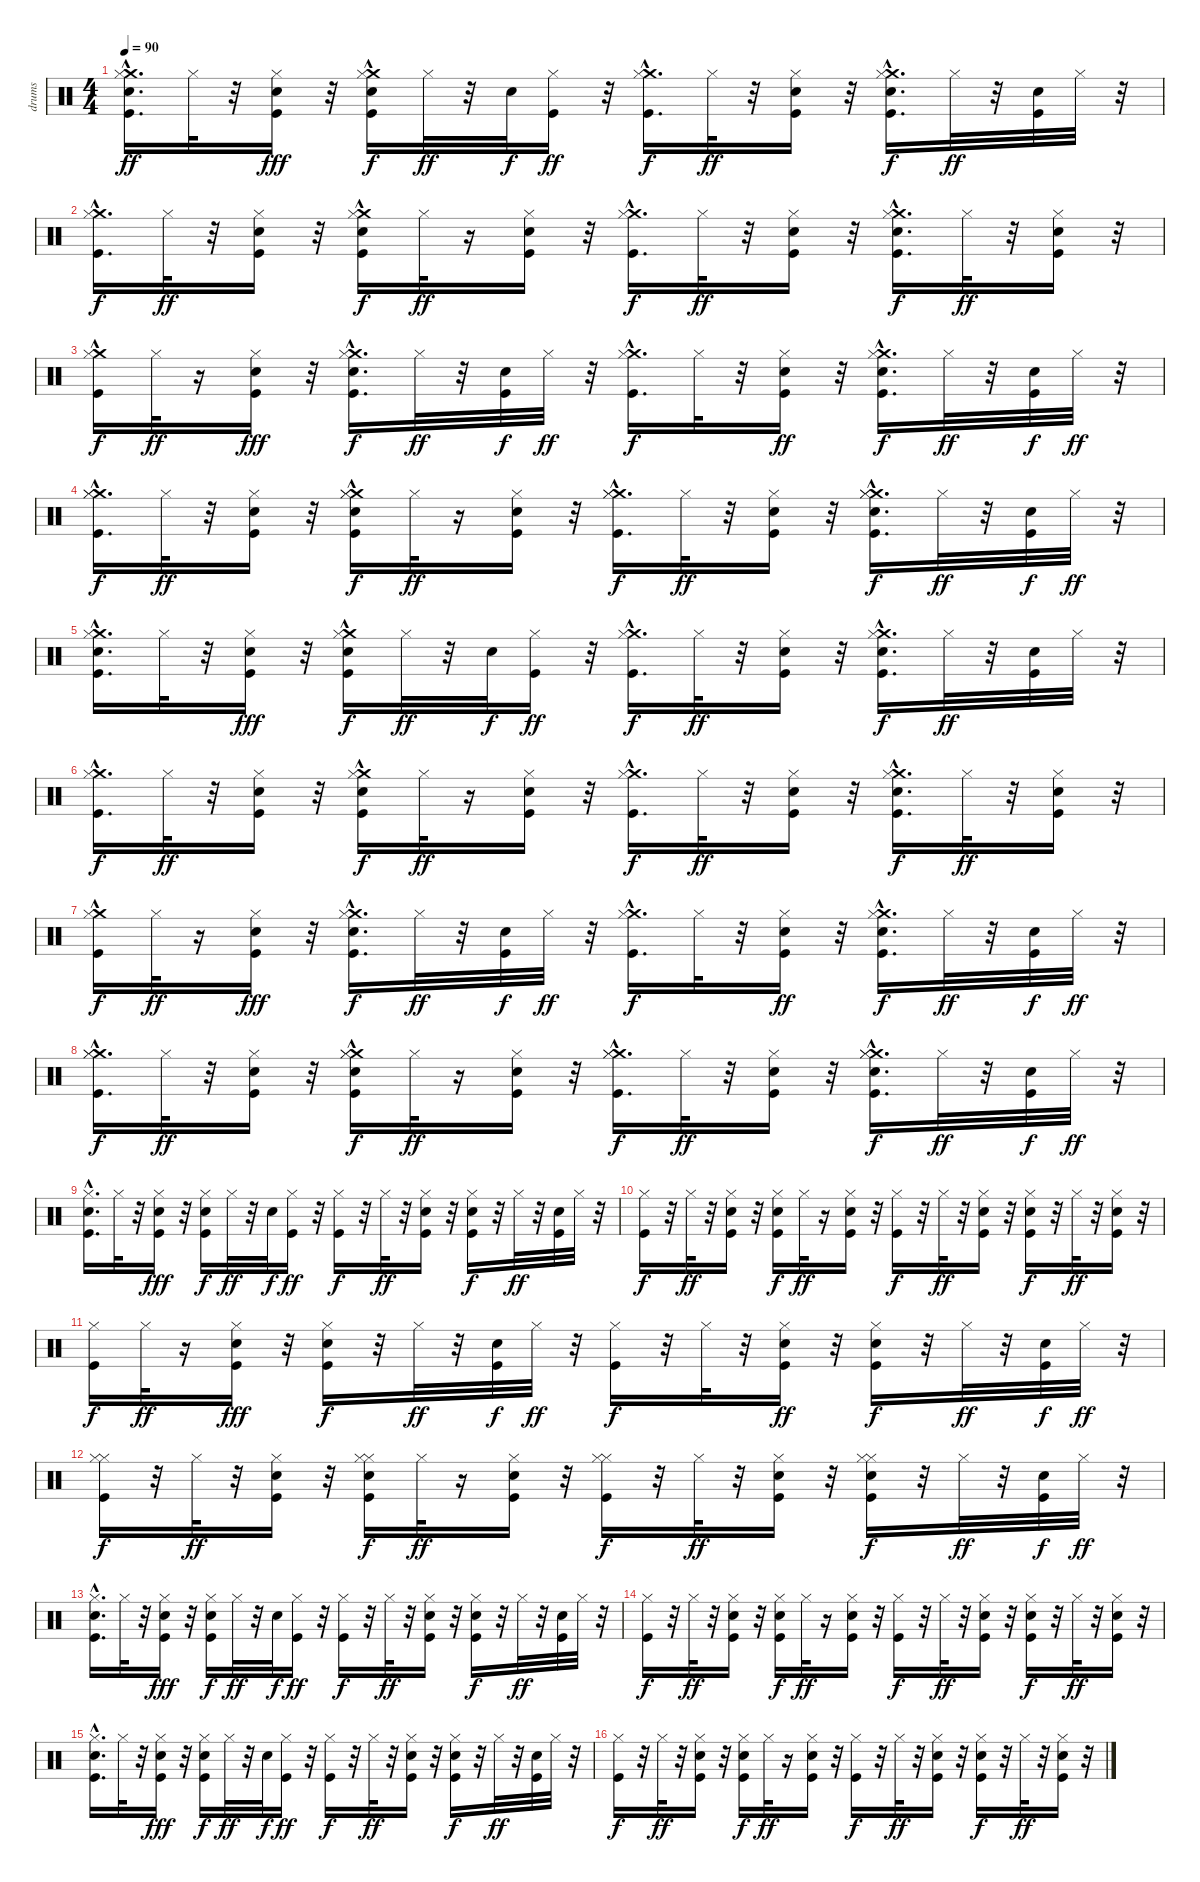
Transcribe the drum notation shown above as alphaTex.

\track ("drums" "drums") {instrument percussion}
\staff {score}
\articulation defaults
\ts (4 4)
\tempo 90
\clef neutral
\ks c
("Kick (hit)" "Crash medium (hit)"{hac} "Hi-Hat (closed)" "Snare (hit)"{hac}).16{d dy ff} "Hi-Hat (closed)".32 r.32 ("Kick (hit)" "Hi-Hat (closed)" "Snare (hit)").16{dy fff} r.32 ("Kick (hit)" "Crash medium (hit)"{hac} "Electric Snare (hit)" "Hi-Hat (closed)").16{dy f} "Hi-Hat (closed)".32{dy ff} r.32 "Snare (hit)".32{dy f} ("Kick (hit)" "Hi-Hat (closed)").16{dy ff} r.32 ("Kick (hit)" "Crash medium (hit)"{hac} "Hi-Hat (closed)").16{d dy f} "Hi-Hat (closed)".32{dy ff} r.32 ("Kick (hit)" "Snare (hit)" "Hi-Hat (closed)").16 r.32 ("Kick (hit)" "Crash medium (hit)"{hac} "Electric Snare (hit)" "Hi-Hat (closed)").16{d dy f} "Hi-Hat (closed)".32{dy ff} r.32 ("Kick (hit)" "Snare (hit)").32 "Hi-Hat (closed)".32 r.32 |
("Kick (hit)" "Crash medium (hit)"{hac} "Hi-Hat (closed)").16{d dy f} "Hi-Hat (closed)".32{dy ff} r.32 ("Kick (hit)" "Snare (hit)" "Hi-Hat (closed)").16 r.32 ("Kick (hit)" "Crash medium (hit)"{hac} "Electric Snare (hit)" "Hi-Hat (closed)").16{dy f} "Hi-Hat (closed)".32{dy ff} r.16 ("Kick (hit)" "Hi-Hat (closed)" "Snare (hit)").16 r.32 ("Kick (hit)" "Crash medium (hit)"{hac} "Hi-Hat (closed)").16{d dy f} "Hi-Hat (closed)".32{dy ff} r.32 ("Snare (hit)" "Kick (hit)" "Hi-Hat (closed)").16 r.32 ("Kick (hit)" "Crash medium (hit)"{hac} "Electric Snare (hit)" "Hi-Hat (closed)").16{d dy f} "Hi-Hat (closed)".32{dy ff} r.32 ("Kick (hit)" "Snare (hit)" "Hi-Hat (closed)").16 r.32 |
("Kick (hit)" "Crash medium (hit)"{hac} "Hi-Hat (closed)").16{dy f} "Hi-Hat (closed)".32{dy ff} r.16 ("Kick (hit)" "Snare (hit)" "Hi-Hat (closed)").16{dy fff} r.32 ("Kick (hit)" "Crash medium (hit)"{hac} "Electric Snare (hit)" "Hi-Hat (closed)").16{d dy f} "Hi-Hat (closed)".32{dy ff} r.32 ("Kick (hit)" "Snare (hit)").32{dy f} "Hi-Hat (closed)".32{dy ff} r.32 ("Kick (hit)" "Crash medium (hit)"{hac} "Hi-Hat (closed)").16{d dy f} "Hi-Hat (closed)".32 r.32 ("Kick (hit)" "Snare (hit)" "Hi-Hat (closed)").16{dy ff} r.32 ("Kick (hit)" "Crash medium (hit)"{hac} "Electric Snare (hit)" "Hi-Hat (closed)").16{d dy f} "Hi-Hat (closed)".32{dy ff} r.32 ("Kick (hit)" "Snare (hit)").32{dy f} "Hi-Hat (closed)".32{dy ff} r.32 |
("Kick (hit)" "Crash medium (hit)"{hac} "Hi-Hat (closed)" "Hi-Hat (closed)").16{d dy f} "Hi-Hat (closed)".32{dy ff} r.32 ("Snare (hit)" "Kick (hit)" "Hi-Hat (closed)").16 r.32 ("Kick (hit)" "Crash medium (hit)"{hac} "Electric Snare (hit)" "Hi-Hat (closed)" "Hi-Hat (closed)").16{dy f} "Hi-Hat (closed)".32{dy ff} r.16 ("Snare (hit)" "Kick (hit)" "Hi-Hat (closed)").16 r.32 ("Kick (hit)" "Crash medium (hit)"{hac} "Hi-Hat (closed)" "Hi-Hat (closed)").16{d dy f} "Hi-Hat (closed)".32{dy ff} r.32 ("Snare (hit)" "Kick (hit)" "Hi-Hat (closed)").16 r.32 ("Kick (hit)" "Crash medium (hit)"{hac} "Electric Snare (hit)" "Hi-Hat (closed)" "Hi-Hat (closed)").16{d dy f} "Hi-Hat (closed)".32{dy ff} r.32 ("Kick (hit)" "Snare (hit)").32{dy f} "Hi-Hat (closed)".32{dy ff} r.32 |
("Kick (hit)" "Crash medium (hit)"{hac} "Hi-Hat (closed)" "Snare (hit)"{hac}).16{d} "Hi-Hat (closed)".32 r.32 ("Kick (hit)" "Hi-Hat (closed)" "Snare (hit)").16{dy fff} r.32 ("Kick (hit)" "Crash medium (hit)"{hac} "Electric Snare (hit)" "Hi-Hat (closed)").16{dy f} "Hi-Hat (closed)".32{dy ff} r.32 "Snare (hit)".32{dy f} ("Kick (hit)" "Hi-Hat (closed)").16{dy ff} r.32 ("Kick (hit)" "Crash medium (hit)"{hac} "Hi-Hat (closed)").16{d dy f} "Hi-Hat (closed)".32{dy ff} r.32 ("Kick (hit)" "Snare (hit)" "Hi-Hat (closed)").16 r.32 ("Kick (hit)" "Crash medium (hit)"{hac} "Electric Snare (hit)" "Hi-Hat (closed)").16{d dy f} "Hi-Hat (closed)".32{dy ff} r.32 ("Kick (hit)" "Snare (hit)").32 "Hi-Hat (closed)".32 r.32 |
("Kick (hit)" "Crash medium (hit)"{hac} "Hi-Hat (closed)").16{d dy f} "Hi-Hat (closed)".32{dy ff} r.32 ("Kick (hit)" "Snare (hit)" "Hi-Hat (closed)").16 r.32 ("Kick (hit)" "Crash medium (hit)"{hac} "Electric Snare (hit)" "Hi-Hat (closed)").16{dy f} "Hi-Hat (closed)".32{dy ff} r.16 ("Kick (hit)" "Hi-Hat (closed)" "Snare (hit)").16 r.32 ("Kick (hit)" "Crash medium (hit)"{hac} "Hi-Hat (closed)").16{d dy f} "Hi-Hat (closed)".32{dy ff} r.32 ("Snare (hit)" "Kick (hit)" "Hi-Hat (closed)").16 r.32 ("Kick (hit)" "Crash medium (hit)"{hac} "Electric Snare (hit)" "Hi-Hat (closed)").16{d dy f} "Hi-Hat (closed)".32{dy ff} r.32 ("Kick (hit)" "Snare (hit)" "Hi-Hat (closed)").16 r.32 |
("Kick (hit)" "Crash medium (hit)"{hac} "Hi-Hat (closed)").16{dy f} "Hi-Hat (closed)".32{dy ff} r.16 ("Kick (hit)" "Snare (hit)" "Hi-Hat (closed)").16{dy fff} r.32 ("Kick (hit)" "Crash medium (hit)"{hac} "Electric Snare (hit)" "Hi-Hat (closed)").16{d dy f} "Hi-Hat (closed)".32{dy ff} r.32 ("Kick (hit)" "Snare (hit)").32{dy f} "Hi-Hat (closed)".32{dy ff} r.32 ("Kick (hit)" "Crash medium (hit)"{hac} "Hi-Hat (closed)").16{d dy f} "Hi-Hat (closed)".32 r.32 ("Kick (hit)" "Snare (hit)" "Hi-Hat (closed)").16{dy ff} r.32 ("Kick (hit)" "Crash medium (hit)"{hac} "Electric Snare (hit)" "Hi-Hat (closed)").16{d dy f} "Hi-Hat (closed)".32{dy ff} r.32 ("Kick (hit)" "Snare (hit)").32{dy f} "Hi-Hat (closed)".32{dy ff} r.32 |
("Kick (hit)" "Crash medium (hit)"{hac} "Hi-Hat (closed)" "Hi-Hat (closed)").16{d dy f} "Hi-Hat (closed)".32{dy ff} r.32 ("Snare (hit)" "Kick (hit)" "Hi-Hat (closed)").16 r.32 ("Kick (hit)" "Crash medium (hit)"{hac} "Electric Snare (hit)" "Hi-Hat (closed)" "Hi-Hat (closed)").16{dy f} "Hi-Hat (closed)".32{dy ff} r.16 ("Snare (hit)" "Kick (hit)" "Hi-Hat (closed)").16 r.32 ("Kick (hit)" "Crash medium (hit)"{hac} "Hi-Hat (closed)" "Hi-Hat (closed)").16{d dy f} "Hi-Hat (closed)".32{dy ff} r.32 ("Snare (hit)" "Kick (hit)" "Hi-Hat (closed)").16 r.32 ("Kick (hit)" "Crash medium (hit)"{hac} "Electric Snare (hit)" "Hi-Hat (closed)" "Hi-Hat (closed)").16{d dy f} "Hi-Hat (closed)".32{dy ff} r.32 ("Kick (hit)" "Snare (hit)").32{dy f} "Hi-Hat (closed)".32{dy ff} r.32 |
("Kick (hit)" "Hi-Hat (closed)" "Snare (hit)"{hac}).16{d} "Hi-Hat (closed)".32 r.32 ("Kick (hit)" "Hi-Hat (closed)" "Snare (hit)").16{dy fff} r.32 ("Kick (hit)" "Electric Snare (hit)" "Hi-Hat (closed)").16{dy f} "Hi-Hat (closed)".32{dy ff} r.32 "Snare (hit)".32{dy f} ("Kick (hit)" "Hi-Hat (closed)").16{dy ff} r.32 ("Kick (hit)" "Hi-Hat (closed)").16{dy f} r.32 "Hi-Hat (closed)".32{dy ff} r.32 ("Kick (hit)" "Snare (hit)" "Hi-Hat (closed)").16 r.32 ("Kick (hit)" "Electric Snare (hit)" "Hi-Hat (closed)").16{dy f} r.32 "Hi-Hat (closed)".32{dy ff} r.32 ("Kick (hit)" "Snare (hit)").32 "Hi-Hat (closed)".32 r.32 |
("Kick (hit)" "Hi-Hat (closed)").16{dy f} r.32 "Hi-Hat (closed)".32{dy ff} r.32 ("Kick (hit)" "Snare (hit)" "Hi-Hat (closed)").16 r.32 ("Kick (hit)" "Electric Snare (hit)" "Hi-Hat (closed)").16{dy f} "Hi-Hat (closed)".32{dy ff} r.16 ("Kick (hit)" "Hi-Hat (closed)" "Snare (hit)").16 r.32 ("Kick (hit)" "Hi-Hat (closed)").16{dy f} r.32 "Hi-Hat (closed)".32{dy ff} r.32 ("Snare (hit)" "Kick (hit)" "Hi-Hat (closed)").16 r.32 ("Kick (hit)" "Electric Snare (hit)" "Hi-Hat (closed)").16{dy f} r.32 "Hi-Hat (closed)".32{dy ff} r.32 ("Kick (hit)" "Snare (hit)" "Hi-Hat (closed)").16 r.32 |
("Kick (hit)" "Hi-Hat (closed)").16{dy f} "Hi-Hat (closed)".32{dy ff} r.16 ("Kick (hit)" "Snare (hit)" "Hi-Hat (closed)").16{dy fff} r.32 ("Kick (hit)" "Electric Snare (hit)" "Hi-Hat (closed)").16{dy f} r.32 "Hi-Hat (closed)".32{dy ff} r.32 ("Kick (hit)" "Snare (hit)").32{dy f} "Hi-Hat (closed)".32{dy ff} r.32 ("Kick (hit)" "Hi-Hat (closed)").16{dy f} r.32 "Hi-Hat (closed)".32 r.32 ("Kick (hit)" "Snare (hit)" "Hi-Hat (closed)").16{dy ff} r.32 ("Kick (hit)" "Electric Snare (hit)" "Hi-Hat (closed)").16{dy f} r.32 "Hi-Hat (closed)".32{dy ff} r.32 ("Kick (hit)" "Snare (hit)").32{dy f} "Hi-Hat (closed)".32{dy ff} r.32 |
("Kick (hit)" "Hi-Hat (closed)" "Hi-Hat (closed)").16{dy f} r.32 "Hi-Hat (closed)".32{dy ff} r.32 ("Snare (hit)" "Kick (hit)" "Hi-Hat (closed)").16 r.32 ("Kick (hit)" "Electric Snare (hit)" "Hi-Hat (closed)" "Hi-Hat (closed)").16{dy f} "Hi-Hat (closed)".32{dy ff} r.16 ("Snare (hit)" "Kick (hit)" "Hi-Hat (closed)").16 r.32 ("Kick (hit)" "Hi-Hat (closed)" "Hi-Hat (closed)").16{dy f} r.32 "Hi-Hat (closed)".32{dy ff} r.32 ("Snare (hit)" "Kick (hit)" "Hi-Hat (closed)").16 r.32 ("Kick (hit)" "Electric Snare (hit)" "Hi-Hat (closed)" "Hi-Hat (closed)").16{dy f} r.32 "Hi-Hat (closed)".32{dy ff} r.32 ("Kick (hit)" "Snare (hit)").32{dy f} "Hi-Hat (closed)".32{dy ff} r.32 |
("Kick (hit)" "Hi-Hat (closed)" "Snare (hit)"{hac}).16{d} "Hi-Hat (closed)".32 r.32 ("Kick (hit)" "Hi-Hat (closed)" "Snare (hit)").16{dy fff} r.32 ("Kick (hit)" "Electric Snare (hit)" "Hi-Hat (closed)").16{dy f} "Hi-Hat (closed)".32{dy ff} r.32 "Snare (hit)".32{dy f} ("Kick (hit)" "Hi-Hat (closed)").16{dy ff} r.32 ("Kick (hit)" "Hi-Hat (closed)").16{dy f} r.32 "Hi-Hat (closed)".32{dy ff} r.32 ("Kick (hit)" "Snare (hit)" "Hi-Hat (closed)").16 r.32 ("Kick (hit)" "Electric Snare (hit)" "Hi-Hat (closed)").16{dy f} r.32 "Hi-Hat (closed)".32{dy ff} r.32 ("Kick (hit)" "Snare (hit)").32 "Hi-Hat (closed)".32 r.32 |
("Kick (hit)" "Hi-Hat (closed)").16{dy f} r.32 "Hi-Hat (closed)".32{dy ff} r.32 ("Kick (hit)" "Snare (hit)" "Hi-Hat (closed)").16 r.32 ("Kick (hit)" "Electric Snare (hit)" "Hi-Hat (closed)").16{dy f} "Hi-Hat (closed)".32{dy ff} r.16 ("Kick (hit)" "Hi-Hat (closed)" "Snare (hit)").16 r.32 ("Kick (hit)" "Hi-Hat (closed)").16{dy f} r.32 "Hi-Hat (closed)".32{dy ff} r.32 ("Snare (hit)" "Kick (hit)" "Hi-Hat (closed)").16 r.32 ("Kick (hit)" "Electric Snare (hit)" "Hi-Hat (closed)").16{dy f} r.32 "Hi-Hat (closed)".32{dy ff} r.32 ("Kick (hit)" "Snare (hit)" "Hi-Hat (closed)").16 r.32 |
("Kick (hit)" "Hi-Hat (closed)" "Snare (hit)"{hac}).16{d} "Hi-Hat (closed)".32 r.32 ("Kick (hit)" "Hi-Hat (closed)" "Snare (hit)").16{dy fff} r.32 ("Kick (hit)" "Electric Snare (hit)" "Hi-Hat (closed)").16{dy f} "Hi-Hat (closed)".32{dy ff} r.32 "Snare (hit)".32{dy f} ("Kick (hit)" "Hi-Hat (closed)").16{dy ff} r.32 ("Kick (hit)" "Hi-Hat (closed)").16{dy f} r.32 "Hi-Hat (closed)".32{dy ff} r.32 ("Kick (hit)" "Snare (hit)" "Hi-Hat (closed)").16 r.32 ("Kick (hit)" "Electric Snare (hit)" "Hi-Hat (closed)").16{dy f} r.32 "Hi-Hat (closed)".32{dy ff} r.32 ("Kick (hit)" "Snare (hit)").32 "Hi-Hat (closed)".32 r.32 |
("Kick (hit)" "Hi-Hat (closed)").16{dy f} r.32 "Hi-Hat (closed)".32{dy ff} r.32 ("Kick (hit)" "Snare (hit)" "Hi-Hat (closed)").16 r.32 ("Kick (hit)" "Electric Snare (hit)" "Hi-Hat (closed)").16{dy f} "Hi-Hat (closed)".32{dy ff} r.16 ("Kick (hit)" "Hi-Hat (closed)" "Snare (hit)").16 r.32 ("Kick (hit)" "Hi-Hat (closed)").16{dy f} r.32 "Hi-Hat (closed)".32{dy ff} r.32 ("Snare (hit)" "Kick (hit)" "Hi-Hat (closed)").16 r.32 ("Kick (hit)" "Electric Snare (hit)" "Hi-Hat (closed)").16{dy f} r.32 "Hi-Hat (closed)".32{dy ff} r.32 ("Kick (hit)" "Snare (hit)" "Hi-Hat (closed)").16 r.32
